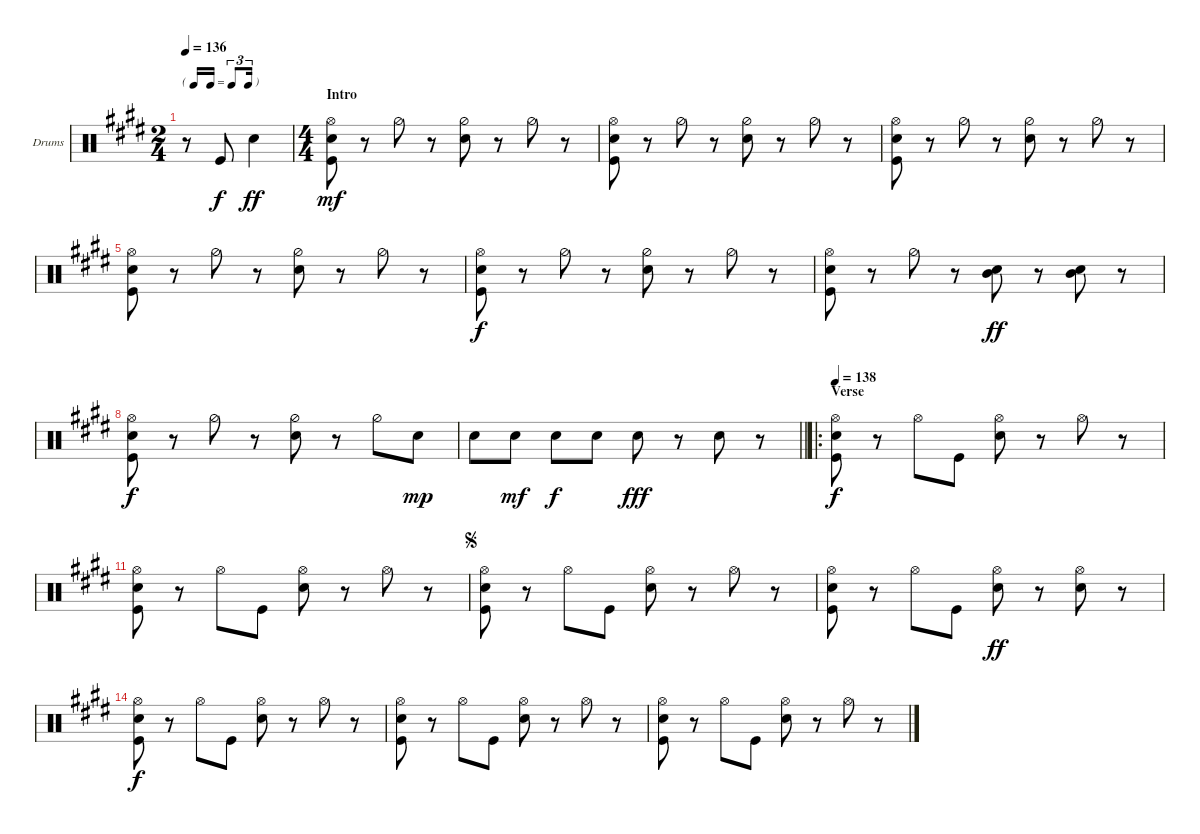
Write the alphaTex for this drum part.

\bracketExtendMode nobrackets
\firstSystemTrackNameOrientation horizontal
\otherSystemsTrackNameOrientation horizontal
\defaultBarNumberDisplay FirstOfSystem
\track ("Drumkit" "Drums") {instrument percussion}
\staff {score}
\articulation defaults
\ts (2 4)
\tf triplet16th
\tempo 136
\clef neutral
\ks e
r.8{dy f} "Kick (hit)".8 "Snare (hit) 2".4{dy ff} |
\ts (4 4)
\section ("" "Intro")
("Hi-Hat (open)" "Snare (hit) 2" "Kick (hit)").8{dy mf} r.8 "Hi-Hat (half)".8 r.8 ("Snare (hit) 2" "Hi-Hat (half)").8 r.8 "Hi-Hat (half)".8 r.8 |
\ks c#minor
("Hi-Hat (open)" "Snare (hit) 2" "Kick (hit)").8 r.8 "Hi-Hat (half)".8 r.8 ("Snare (hit) 2" "Hi-Hat (half)").8 r.8 "Hi-Hat (half)".8 r.8 |
("Hi-Hat (open)" "Snare (hit) 2" "Kick (hit)").8 r.8 "Hi-Hat (half)".8 r.8 ("Snare (hit) 2" "Hi-Hat (half)").8 r.8 "Hi-Hat (half)".8 r.8 |
("Hi-Hat (open)" "Snare (hit) 2" "Kick (hit)").8 r.8 "Hi-Hat (half)".8 r.8 ("Snare (hit) 2" "Hi-Hat (half)").8 r.8 "Hi-Hat (half)".8 r.8 |
\ks e
("Hi-Hat (open)" "Snare (hit) 2" "Kick (hit)").8{dy f} r.8 "Hi-Hat (half)".8 r.8 ("Snare (hit) 2" "Hi-Hat (half)").8 r.8 "Hi-Hat (half)".8 r.8 |
\ks c#minor
("Hi-Hat (open)" "Snare (hit) 2" "Kick (hit)").8 r.8 "Hi-Hat (half)".8 r.8 ("Snare (hit) 2" "Mid Tom (hit)").8{dy ff} r.8 ("Snare (hit) 2" "Mid Tom (hit)").8 r.8 |
("Hi-Hat (open)" "Snare (hit) 2" "Kick (hit)").8{dy f} r.8 "Hi-Hat (half)".8 r.8 ("Snare (hit) 2" "Hi-Hat (half)").8 r.8 "Hi-Hat (half)".8 "Snare (hit) 2".8{dy mp} |
\barLineRight lightlight "Snare (hit) 2".8 "Snare (hit) 2".8{dy mf} "Snare (hit) 2".8{dy f} "Snare (hit) 2".8 "Snare (hit) 2".8{dy fff}
r.8 "Snare (hit) 2".8 r.8 |
\ro
\section ("" "Verse")
\tempo 138
\ks e
("Hi-Hat (open)" "Snare (hit) 2" "Kick (hit)").8{dy f} r.8 "Hi-Hat (open)".8 "Kick (hit)".8 ("Snare (hit) 2" "Hi-Hat (open)").8 r.8 "Hi-Hat (open)".8 r.8 |
\ks c#minor
("Hi-Hat (open)" "Snare (hit) 2" "Kick (hit)").8 r.8 "Hi-Hat (open)".8 "Kick (hit)".8 ("Snare (hit) 2" "Hi-Hat (open)").8 r.8 "Hi-Hat (open)".8 r.8 |
\jump segno
("Hi-Hat (open)" "Snare (hit) 2" "Kick (hit)").8 r.8 "Hi-Hat (open)".8 "Kick (hit)".8 ("Snare (hit) 2" "Hi-Hat (open)").8 r.8 "Hi-Hat (open)".8 r.8 |
("Hi-Hat (open)" "Snare (hit) 2" "Kick (hit)").8 r.8 "Hi-Hat (open)".8 "Kick (hit)".8 ("Snare (hit) 2" "Hi-Hat (open)").8{dy ff} r.8 ("Hi-Hat (open)" "Snare (hit) 2").8 r.8 |
\ks e
("Hi-Hat (open)" "Snare (hit) 2" "Kick (hit)").8{dy f} r.8 "Hi-Hat (open)".8 "Kick (hit)".8 ("Snare (hit) 2" "Hi-Hat (open)").8 r.8 "Hi-Hat (open)".8 r.8 |
\ks c#minor
("Hi-Hat (open)" "Snare (hit) 2" "Kick (hit)").8 r.8 "Hi-Hat (open)".8 "Kick (hit)".8 ("Snare (hit) 2" "Hi-Hat (open)").8 r.8 "Hi-Hat (open)".8 r.8 |
("Hi-Hat (open)" "Snare (hit) 2" "Kick (hit)").8 r.8 "Hi-Hat (open)".8 "Kick (hit)".8 ("Snare (hit) 2" "Hi-Hat (open)").8 r.8 "Hi-Hat (open)".8 r.8
